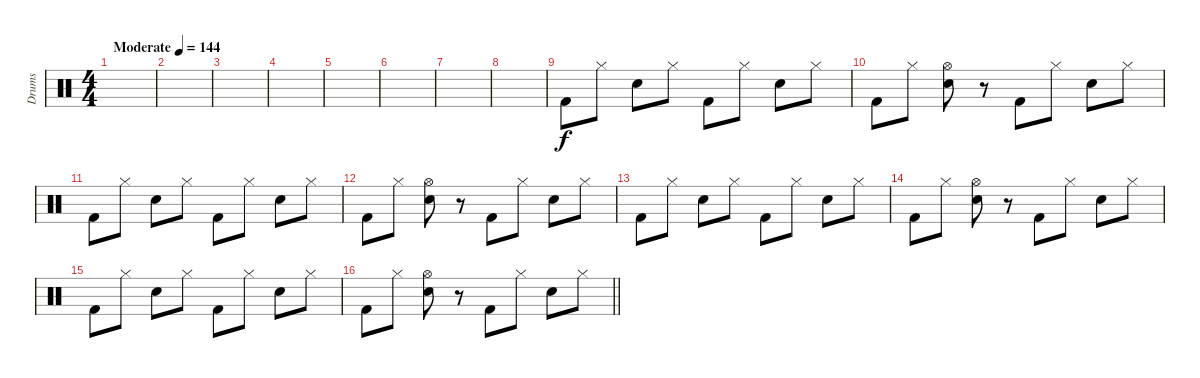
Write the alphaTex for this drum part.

\track ("Drums" "Drums") {instrument percussion}
\staff {score}
\articulation defaults
\ts (4 4)
\tempo (144 "Moderate")
\clef neutral
\ks c
|
|
|
|
|
|
|
|
"Kick (hit) 2".8 "Hi-Hat (closed)".8 "Snare (hit) 2".8 "Hi-Hat (closed)".8 "Kick (hit) 2".8 "Hi-Hat (closed)".8 "Snare (hit) 2".8 "Hi-Hat (closed)".8 |
"Kick (hit) 2".8 "Hi-Hat (closed)".8 ("Hi-Hat (open)" "Snare (hit) 2").8 r.8 "Kick (hit) 2".8 "Hi-Hat (closed)".8 "Snare (hit) 2".8 "Hi-Hat (closed)".8 |
"Kick (hit) 2".8 "Hi-Hat (closed)".8 "Snare (hit) 2".8 "Hi-Hat (closed)".8 "Kick (hit) 2".8 "Hi-Hat (closed)".8 "Snare (hit) 2".8 "Hi-Hat (closed)".8 |
"Kick (hit) 2".8 "Hi-Hat (closed)".8 ("Hi-Hat (open)" "Snare (hit) 2").8 r.8 "Kick (hit) 2".8 "Hi-Hat (closed)".8 "Snare (hit) 2".8 "Hi-Hat (closed)".8 |
"Kick (hit) 2".8 "Hi-Hat (closed)".8 "Snare (hit) 2".8 "Hi-Hat (closed)".8 "Kick (hit) 2".8 "Hi-Hat (closed)".8 "Snare (hit) 2".8 "Hi-Hat (closed)".8 |
"Kick (hit) 2".8 "Hi-Hat (closed)".8 ("Hi-Hat (open)" "Snare (hit) 2").8 r.8 "Kick (hit) 2".8 "Hi-Hat (closed)".8 "Snare (hit) 2".8 "Hi-Hat (closed)".8 |
"Kick (hit) 2".8 "Hi-Hat (closed)".8 "Snare (hit) 2".8 "Hi-Hat (closed)".8 "Kick (hit) 2".8 "Hi-Hat (closed)".8 "Snare (hit) 2".8 "Hi-Hat (closed)".8 |
\barLineRight lightlight "Kick (hit) 2".8 "Hi-Hat (closed)".8
("Hi-Hat (open)" "Snare (hit) 2").8 r.8 "Kick (hit) 2".8 "Hi-Hat (closed)".8 "Snare (hit) 2".8 "Hi-Hat (closed)".8
